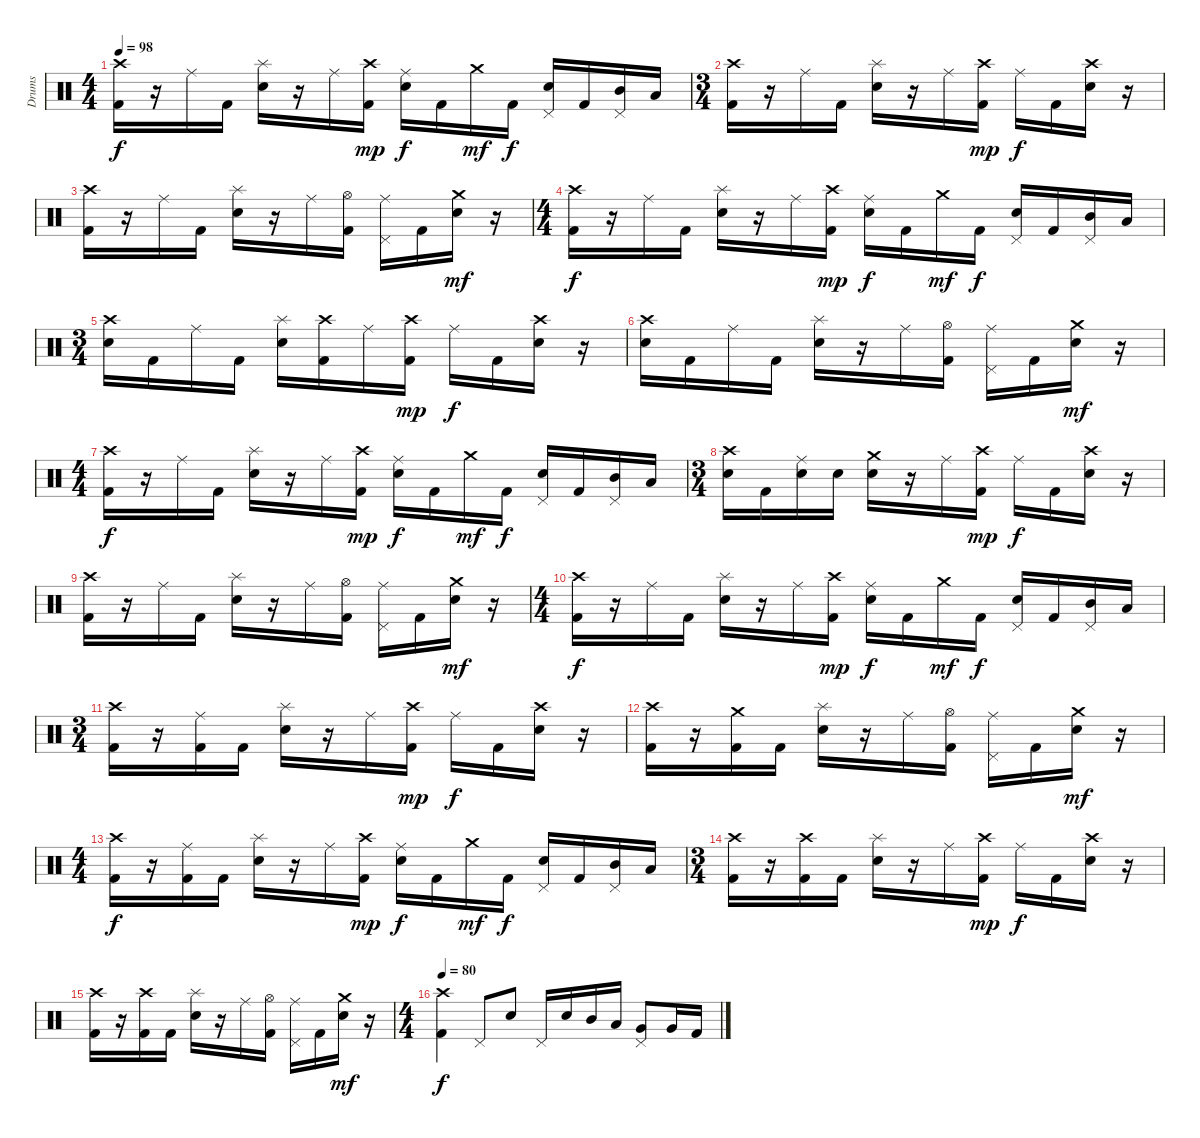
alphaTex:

\track ("Drums" "Drums") {instrument percussion}
\staff {score}
\articulation defaults
\ts (4 4)
\tempo 98
\clef neutral
\ks c
("Crash high (hit)" "Kick (hit) 2").16{dy f} r.16 "Ride (middle)".16 "Kick (hit) 2".16 ("Splash (hit)" "Snare (hit) 2").16 r.16 "Ride (middle)".16 ("Crash high (hit)" "Kick (hit) 2").16{dy mp} ("Ride (middle)" "Snare (hit) 2").16{dy f} "Kick (hit) 2".16 "Crash medium (hit)".16{dy mf} "Kick (hit) 2".16{dy f} ("Pedal Hi-Hat (hit)" "Snare (hit) 2").16 "Kick (hit) 2".16 ("Pedal Hi-Hat (hit)" "Mid Tom (hit)").16 "Low Tom (hit)".16 |
\ts (3 4)
("Crash high (hit)" "Kick (hit) 2").16 r.16 "Ride (middle)".16 "Kick (hit) 2".16 ("Splash (hit)" "Snare (hit) 2").16 r.16 "Ride (middle)".16 ("Crash high (hit)" "Kick (hit) 2").16{dy mp} "Ride (middle)".16{dy f} "Kick (hit) 2".16 ("Crash high (hit)" "Snare (hit) 2").16 r.16 |
("Crash high (hit)" "Kick (hit) 2").16 r.16 "Ride (middle)".16 "Kick (hit) 2".16 ("Splash (hit)" "Snare (hit) 2").16 r.16 "Ride (middle)".16 ("Hi-Hat (open)" "Kick (hit) 2").16 ("Ride (middle)" "Pedal Hi-Hat (hit)").16 "Kick (hit) 2".16 ("Crash medium (hit)" "Snare (hit) 2").16{dy mf} r.16 |
\ts (4 4)
("Crash high (hit)" "Kick (hit) 2").16{dy f} r.16 "Ride (middle)".16 "Kick (hit) 2".16 ("Splash (hit)" "Snare (hit) 2").16 r.16 "Ride (middle)".16 ("Crash high (hit)" "Kick (hit) 2").16{dy mp} ("Ride (middle)" "Snare (hit) 2").16{dy f} "Kick (hit) 2".16 "Crash medium (hit)".16{dy mf} "Kick (hit) 2".16{dy f} ("Pedal Hi-Hat (hit)" "Snare (hit) 2").16 "Kick (hit) 2".16 ("Pedal Hi-Hat (hit)" "Mid Tom (hit)").16 "Low Tom (hit)".16 |
\ts (3 4)
("Crash high (hit)" "Snare (hit) 2").16 "Kick (hit) 2".16 "Ride (middle)".16 "Kick (hit) 2".16 ("Splash (hit)" "Snare (hit) 2").16 ("Crash high (hit)" "Kick (hit) 2").16 "Ride (middle)".16 ("Crash high (hit)" "Kick (hit) 2").16{dy mp} "Ride (middle)".16{dy f} "Kick (hit) 2".16 ("Crash high (hit)" "Snare (hit) 2").16 r.16 |
("Crash high (hit)" "Snare (hit) 2").16 "Kick (hit) 2".16 "Ride (middle)".16 "Kick (hit) 2".16 ("Splash (hit)" "Snare (hit) 2").16 r.16 "Ride (middle)".16 ("Hi-Hat (open)" "Kick (hit) 2").16 ("Ride (middle)" "Pedal Hi-Hat (hit)").16 "Kick (hit) 2".16 ("Crash medium (hit)" "Snare (hit) 2").16{dy mf} r.16 |
\ts (4 4)
("Crash high (hit)" "Kick (hit) 2").16{dy f} r.16 "Ride (middle)".16 "Kick (hit) 2".16 ("Splash (hit)" "Snare (hit) 2").16 r.16 "Ride (middle)".16 ("Crash high (hit)" "Kick (hit) 2").16{dy mp} ("Ride (middle)" "Snare (hit) 2").16{dy f} "Kick (hit) 2".16 "Crash medium (hit)".16{dy mf} "Kick (hit) 2".16{dy f} ("Pedal Hi-Hat (hit)" "Snare (hit) 2").16 "Kick (hit) 2".16 ("Pedal Hi-Hat (hit)" "Mid Tom (hit)").16 "Low Tom (hit)".16 |
\ts (3 4)
("Crash high (hit)" "Snare (hit) 2").16 "Kick (hit) 2".16 ("Ride (middle)" "Snare (hit) 2").16 "Snare (hit) 2".16 ("Crash medium (hit)" "Snare (hit) 2").16 r.16 "Ride (middle)".16 ("Crash high (hit)" "Kick (hit) 2").16{dy mp} "Ride (middle)".16{dy f} "Kick (hit) 2".16 ("Crash high (hit)" "Snare (hit) 2").16 r.16 |
("Crash high (hit)" "Kick (hit) 2").16 r.16 "Ride (middle)".16 "Kick (hit) 2".16 ("Splash (hit)" "Snare (hit) 2").16 r.16 "Ride (middle)".16 ("Hi-Hat (open)" "Kick (hit) 2").16 ("Ride (middle)" "Pedal Hi-Hat (hit)").16 "Kick (hit) 2".16 ("Crash medium (hit)" "Snare (hit) 2").16{dy mf} r.16 |
\ts (4 4)
("Crash high (hit)" "Kick (hit) 2").16{dy f} r.16 "Ride (middle)".16 "Kick (hit) 2".16 ("Splash (hit)" "Snare (hit) 2").16 r.16 "Ride (middle)".16 ("Crash high (hit)" "Kick (hit) 2").16{dy mp} ("Ride (middle)" "Snare (hit) 2").16{dy f} "Kick (hit) 2".16 "Crash medium (hit)".16{dy mf} "Kick (hit) 2".16{dy f} ("Pedal Hi-Hat (hit)" "Snare (hit) 2").16 "Kick (hit) 2".16 ("Pedal Hi-Hat (hit)" "Mid Tom (hit)").16 "Low Tom (hit)".16 |
\ts (3 4)
("Crash high (hit)" "Kick (hit) 2").16 r.16 ("Ride (middle)" "Kick (hit) 2").16 "Kick (hit) 2".16 ("Splash (hit)" "Snare (hit) 2").16 r.16 "Ride (middle)".16 ("Crash high (hit)" "Kick (hit) 2").16{dy mp} "Ride (middle)".16{dy f} "Kick (hit) 2".16 ("Crash high (hit)" "Snare (hit) 2").16 r.16 |
("Crash high (hit)" "Kick (hit) 2").16 r.16 ("Crash medium (hit)" "Kick (hit) 2").16 "Kick (hit) 2".16 ("Splash (hit)" "Snare (hit) 2").16 r.16 "Ride (middle)".16 ("Hi-Hat (open)" "Kick (hit) 2").16 ("Ride (middle)" "Pedal Hi-Hat (hit)").16 "Kick (hit) 2".16 ("Crash medium (hit)" "Snare (hit) 2").16{dy mf} r.16 |
\ts (4 4)
("Crash high (hit)" "Kick (hit) 2").16{dy f} r.16 ("Ride (middle)" "Kick (hit) 2").16 "Kick (hit) 2".16 ("Splash (hit)" "Snare (hit) 2").16 r.16 "Ride (middle)".16 ("Crash high (hit)" "Kick (hit) 2").16{dy mp} ("Ride (middle)" "Snare (hit) 2").16{dy f} "Kick (hit) 2".16 "Crash medium (hit)".16{dy mf} "Kick (hit) 2".16{dy f} ("Pedal Hi-Hat (hit)" "Snare (hit) 2").16 "Kick (hit) 2".16 ("Pedal Hi-Hat (hit)" "Mid Tom (hit)").16 "Low Tom (hit)".16 |
\ts (3 4)
("Crash high (hit)" "Kick (hit) 2").16 r.16 ("Crash high (hit)" "Kick (hit) 2").16 "Kick (hit) 2".16 ("Splash (hit)" "Snare (hit) 2").16 r.16 "Ride (middle)".16 ("Crash high (hit)" "Kick (hit) 2").16{dy mp} "Ride (middle)".16{dy f} "Kick (hit) 2".16 ("Crash high (hit)" "Snare (hit) 2").16 r.16 |
("Crash high (hit)" "Kick (hit) 2").16 r.16 ("Crash high (hit)" "Kick (hit) 2").16 "Kick (hit) 2".16 ("Splash (hit)" "Snare (hit) 2").16 r.16 "Ride (middle)".16 ("Hi-Hat (open)" "Kick (hit) 2").16 ("Ride (middle)" "Pedal Hi-Hat (hit)").16 "Kick (hit) 2".16 ("Crash medium (hit)" "Snare (hit) 2").16{dy mf} r.16 |
\ts (4 4)
\tempo 80
("Crash high (hit)" "Kick (hit) 2").4{dy f} "Pedal Hi-Hat (hit)".8 "Snare (hit) 2".8 "Pedal Hi-Hat (hit)".16 "Snare (hit) 2".16 "Mid Tom (hit)".16 "Low Tom (hit)".16 ("Pedal Hi-Hat (hit)" "Very Low Tom (hit)").8 "Very Low Tom (hit)".16 "Kick (hit) 2".16
